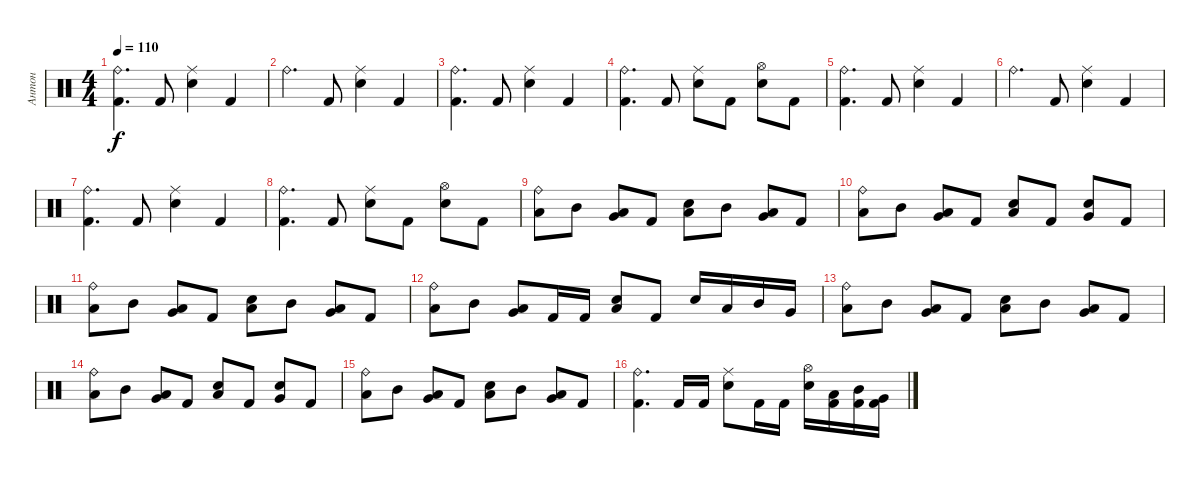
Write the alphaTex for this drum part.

\track ("Антон" "Антон") {instrument percussion}
\staff {score}
\articulation defaults
\ts (4 4)
\tempo 110
\clef neutral
\ks c
("Ride (bell)" "Kick (hit) 2").4{d dy f} "Kick (hit) 2".8 ("Ride (middle)" "Electric Snare (hit)").4 "Kick (hit) 2".4 |
"Ride (bell)".4{d} "Kick (hit) 2".8 ("Ride (middle)" "Electric Snare (hit)").4 "Kick (hit) 2".4 |
("Ride (bell)" "Kick (hit) 2").4{d} "Kick (hit) 2".8 ("Ride (middle)" "Electric Snare (hit)").4 "Kick (hit) 2".4 |
("Ride (bell)" "Kick (hit) 2").4{d} "Kick (hit) 2".8 ("Ride (middle)" "Electric Snare (hit)").8 "Kick (hit) 2".8 ("Hi-Hat (open)" "Electric Snare (hit)").8 "Kick (hit) 2".8 |
("Ride (bell)" "Kick (hit) 2").4{d} "Kick (hit) 2".8 ("Ride (middle)" "Electric Snare (hit)").4 "Kick (hit) 2".4 |
"Ride (bell)".4{d} "Kick (hit) 2".8 ("Ride (middle)" "Electric Snare (hit)").4 "Kick (hit) 2".4 |
("Ride (bell)" "Kick (hit) 2").4{d} "Kick (hit) 2".8 ("Ride (middle)" "Electric Snare (hit)").4 "Kick (hit) 2".4 |
("Ride (bell)" "Kick (hit) 2").4{d} "Kick (hit) 2".8 ("Ride (middle)" "Electric Snare (hit)").8 "Kick (hit) 2".8 ("Hi-Hat (open)" "Electric Snare (hit)").8 "Kick (hit) 2".8 |
("Ride (bell)" "Low Tom (hit)").8 "Mid Tom (hit)".8 ("Low Tom (hit)" "Very Low Tom (hit)").8 "Kick (hit) 2".8 ("Low Tom (hit)" "Electric Snare (hit)").8 "Mid Tom (hit)".8 ("Low Tom (hit)" "Very Low Tom (hit)").8 "Kick (hit) 2".8 |
("Ride (bell)" "Low Tom (hit)").8 "Mid Tom (hit)".8 ("Low Tom (hit)" "Very Low Tom (hit)").8 "Kick (hit) 2".8 ("Low Tom (hit)" "Electric Snare (hit)").8 "Kick (hit) 2".8 ("Very Low Tom (hit)" "Electric Snare (hit)").8 "Kick (hit) 2".8 |
("Ride (bell)" "Low Tom (hit)").8 "Mid Tom (hit)".8 ("Low Tom (hit)" "Very Low Tom (hit)").8 "Kick (hit) 2".8 ("Low Tom (hit)" "Electric Snare (hit)").8 "Mid Tom (hit)".8 ("Low Tom (hit)" "Very Low Tom (hit)").8 "Kick (hit) 2".8 |
("Ride (bell)" "Low Tom (hit)").8 "Mid Tom (hit)".8 ("Low Tom (hit)" "Very Low Tom (hit)").8 "Kick (hit) 2".16 "Kick (hit) 2".16 ("Low Tom (hit)" "Electric Snare (hit)").8 "Kick (hit) 2".8 "Electric Snare (hit)".16 "Low Tom (hit)".16 "Mid Tom (hit)".16 "Very Low Tom (hit)".16 |
("Ride (bell)" "Low Tom (hit)").8 "Mid Tom (hit)".8 ("Low Tom (hit)" "Very Low Tom (hit)").8 "Kick (hit) 2".8 ("Low Tom (hit)" "Electric Snare (hit)").8 "Mid Tom (hit)".8 ("Low Tom (hit)" "Very Low Tom (hit)").8 "Kick (hit) 2".8 |
("Ride (bell)" "Low Tom (hit)").8 "Mid Tom (hit)".8 ("Low Tom (hit)" "Very Low Tom (hit)").8 "Kick (hit) 2".8 ("Low Tom (hit)" "Electric Snare (hit)").8 "Kick (hit) 2".8 ("Very Low Tom (hit)" "Electric Snare (hit)").8 "Kick (hit) 2".8 |
("Ride (bell)" "Low Tom (hit)").8 "Mid Tom (hit)".8 ("Low Tom (hit)" "Very Low Tom (hit)").8 "Kick (hit) 2".8 ("Low Tom (hit)" "Electric Snare (hit)").8 "Mid Tom (hit)".8 ("Low Tom (hit)" "Very Low Tom (hit)").8 "Kick (hit) 2".8 |
("Ride (bell)" "Kick (hit) 2").4{d} "Kick (hit) 2".16 "Kick (hit) 2".16 ("Ride (middle)" "Electric Snare (hit)").8 "Kick (hit) 2".16 "Kick (hit) 2".16 ("Hi-Hat (open)" "Electric Snare (hit)").16 ("Low Tom (hit)" "Kick (hit) 2").16 ("Mid Tom (hit)" "Kick (hit) 2").16 ("Very Low Tom (hit)" "Kick (hit) 2").16
